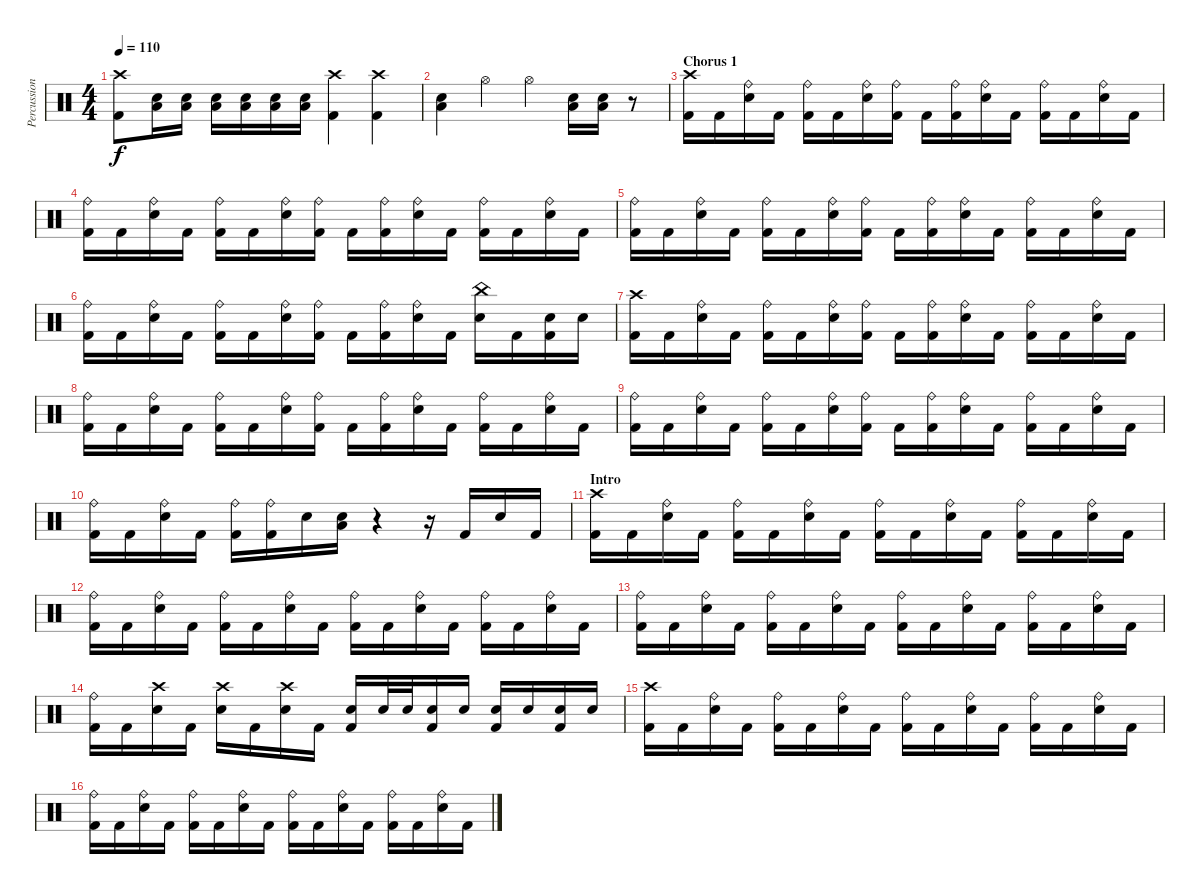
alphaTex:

\track ("Percussion" "Percussion") {instrument percussion}
\staff {score}
\articulation defaults
\ts (4 4)
\tempo 110
\clef neutral
\ks c
("Kick (hit) 2" "Crash high (hit)").8{dy f} ("Electric Snare (hit)" "Low Tom (hit)").16 ("Electric Snare (hit)" "Low Tom (hit)").16 ("Electric Snare (hit)" "Low Tom (hit)").16 ("Electric Snare (hit)" "Low Tom (hit)").16 ("Electric Snare (hit)" "Low Tom (hit)").16 ("Electric Snare (hit)" "Low Tom (hit)").16 ("Kick (hit) 2" "Crash high (hit)").4 ("Kick (hit) 2" "Crash high (hit)").4 |
("Electric Snare (hit)" "Low Tom (hit)").4 "Hi-Hat (open)".4 "Hi-Hat (open)".4 ("Electric Snare (hit)" "Low Tom (hit)").16 ("Electric Snare (hit)" "Low Tom (hit)").16 r.8 |
\section ("" "Chorus 1")
("Kick (hit) 2" "Crash high (hit)").16 "Kick (hit) 2".16 ("Electric Snare (hit)" "Ride (bell)").16 "Kick (hit) 2".16 ("Kick (hit) 2" "Ride (bell)").16 "Kick (hit) 2".16 ("Electric Snare (hit)" "Ride (bell)").16 ("Kick (hit) 2" "Ride (bell)").16 "Kick (hit) 2".16 ("Kick (hit) 2" "Ride (bell)").16 ("Electric Snare (hit)" "Ride (bell)").16 "Kick (hit) 2".16 ("Kick (hit) 2" "Ride (bell)").16 "Kick (hit) 2".16 ("Electric Snare (hit)" "Ride (bell)").16 "Kick (hit) 2".16 |
("Kick (hit) 2" "Ride (bell)").16 "Kick (hit) 2".16 ("Electric Snare (hit)" "Ride (bell)").16 "Kick (hit) 2".16 ("Kick (hit) 2" "Ride (bell)").16 "Kick (hit) 2".16 ("Electric Snare (hit)" "Ride (bell)").16 ("Kick (hit) 2" "Ride (bell)").16 "Kick (hit) 2".16 ("Kick (hit) 2" "Ride (bell)").16 ("Electric Snare (hit)" "Ride (bell)").16 "Kick (hit) 2".16 ("Kick (hit) 2" "Ride (bell)").16 "Kick (hit) 2".16 ("Electric Snare (hit)" "Ride (bell)").16 "Kick (hit) 2".16 |
("Kick (hit) 2" "Ride (bell)").16 "Kick (hit) 2".16 ("Electric Snare (hit)" "Ride (bell)").16 "Kick (hit) 2".16 ("Kick (hit) 2" "Ride (bell)").16 "Kick (hit) 2".16 ("Electric Snare (hit)" "Ride (bell)").16 ("Kick (hit) 2" "Ride (bell)").16 "Kick (hit) 2".16 ("Kick (hit) 2" "Ride (bell)").16 ("Electric Snare (hit)" "Ride (bell)").16 "Kick (hit) 2".16 ("Kick (hit) 2" "Ride (bell)").16 "Kick (hit) 2".16 ("Electric Snare (hit)" "Ride (bell)").16 "Kick (hit) 2".16 |
("Kick (hit) 2" "Ride (bell)").16 "Kick (hit) 2".16 ("Electric Snare (hit)" "Ride (bell)").16 "Kick (hit) 2".16 ("Kick (hit) 2" "Ride (bell)").16 "Kick (hit) 2".16 ("Electric Snare (hit)" "Ride (bell)").16 ("Kick (hit) 2" "Ride (bell)").16 "Kick (hit) 2".16 ("Kick (hit) 2" "Ride (bell)").16 ("Electric Snare (hit)" "Ride (bell)").16 "Kick (hit) 2".16 ("Electric Snare (hit)" "China (hit)").16 "Kick (hit) 2".16 ("Electric Snare (hit)" "Kick (hit) 2").16 "Electric Snare (hit)".16 |
("Kick (hit) 2" "Crash high (hit)").16 "Kick (hit) 2".16 ("Electric Snare (hit)" "Ride (bell)").16 "Kick (hit) 2".16 ("Kick (hit) 2" "Ride (bell)").16 "Kick (hit) 2".16 ("Electric Snare (hit)" "Ride (bell)").16 ("Kick (hit) 2" "Ride (bell)").16 "Kick (hit) 2".16 ("Kick (hit) 2" "Ride (bell)").16 ("Electric Snare (hit)" "Ride (bell)").16 "Kick (hit) 2".16 ("Kick (hit) 2" "Ride (bell)").16 "Kick (hit) 2".16 ("Electric Snare (hit)" "Ride (bell)").16 "Kick (hit) 2".16 |
("Kick (hit) 2" "Ride (bell)").16 "Kick (hit) 2".16 ("Electric Snare (hit)" "Ride (bell)").16 "Kick (hit) 2".16 ("Kick (hit) 2" "Ride (bell)").16 "Kick (hit) 2".16 ("Electric Snare (hit)" "Ride (bell)").16 ("Kick (hit) 2" "Ride (bell)").16 "Kick (hit) 2".16 ("Kick (hit) 2" "Ride (bell)").16 ("Electric Snare (hit)" "Ride (bell)").16 "Kick (hit) 2".16 ("Kick (hit) 2" "Ride (bell)").16 "Kick (hit) 2".16 ("Electric Snare (hit)" "Ride (bell)").16 "Kick (hit) 2".16 |
("Kick (hit) 2" "Ride (bell)").16 "Kick (hit) 2".16 ("Electric Snare (hit)" "Ride (bell)").16 "Kick (hit) 2".16 ("Kick (hit) 2" "Ride (bell)").16 "Kick (hit) 2".16 ("Electric Snare (hit)" "Ride (bell)").16 ("Kick (hit) 2" "Ride (bell)").16 "Kick (hit) 2".16 ("Kick (hit) 2" "Ride (bell)").16 ("Electric Snare (hit)" "Ride (bell)").16 "Kick (hit) 2".16 ("Kick (hit) 2" "Ride (bell)").16 "Kick (hit) 2".16 ("Electric Snare (hit)" "Ride (bell)").16 "Kick (hit) 2".16 |
("Kick (hit) 2" "Ride (bell)").16 "Kick (hit) 2".16 ("Electric Snare (hit)" "Ride (bell)").16 "Kick (hit) 2".16 ("Kick (hit) 2" "Ride (bell)").16 ("Kick (hit) 2" "Ride (bell)").16 "Electric Snare (hit)".16 ("Electric Snare (hit)" "Low Tom (hit)").16 r.4 r.16 "Kick (hit) 2".16 "Electric Snare (hit)".16 "Kick (hit) 2".16 |
\section ("" "Intro")
("Kick (hit) 2" "Crash high (hit)").16 "Kick (hit) 2".16 ("Electric Snare (hit)" "Ride (bell)").16 "Kick (hit) 2".16 ("Kick (hit) 2" "Ride (bell)").16 "Kick (hit) 2".16 ("Electric Snare (hit)" "Ride (bell)").16 "Kick (hit) 2".16 ("Kick (hit) 2" "Ride (bell)").16 "Kick (hit) 2".16 ("Electric Snare (hit)" "Ride (bell)").16 "Kick (hit) 2".16 ("Kick (hit) 2" "Ride (bell)").16 "Kick (hit) 2".16 ("Electric Snare (hit)" "Ride (bell)").16 "Kick (hit) 2".16 |
("Kick (hit) 2" "Ride (bell)").16 "Kick (hit) 2".16 ("Electric Snare (hit)" "Ride (bell)").16 "Kick (hit) 2".16 ("Kick (hit) 2" "Ride (bell)").16 "Kick (hit) 2".16 ("Electric Snare (hit)" "Ride (bell)").16 "Kick (hit) 2".16 ("Kick (hit) 2" "Ride (bell)").16 "Kick (hit) 2".16 ("Electric Snare (hit)" "Ride (bell)").16 "Kick (hit) 2".16 ("Kick (hit) 2" "Ride (bell)").16 "Kick (hit) 2".16 ("Electric Snare (hit)" "Ride (bell)").16 "Kick (hit) 2".16 |
("Kick (hit) 2" "Ride (bell)").16 "Kick (hit) 2".16 ("Electric Snare (hit)" "Ride (bell)").16 "Kick (hit) 2".16 ("Kick (hit) 2" "Ride (bell)").16 "Kick (hit) 2".16 ("Electric Snare (hit)" "Ride (bell)").16 "Kick (hit) 2".16 ("Kick (hit) 2" "Ride (bell)").16 "Kick (hit) 2".16 ("Electric Snare (hit)" "Ride (bell)").16 "Kick (hit) 2".16 ("Kick (hit) 2" "Ride (bell)").16 "Kick (hit) 2".16 ("Electric Snare (hit)" "Ride (bell)").16 "Kick (hit) 2".16 |
("Kick (hit) 2" "Ride (bell)").16 "Kick (hit) 2".16 ("Electric Snare (hit)" "Crash high (hit)").16 "Kick (hit) 2".16 ("Electric Snare (hit)" "Crash high (hit)").16 "Kick (hit) 2".16 ("Electric Snare (hit)" "Crash high (hit)").16 "Kick (hit) 2".16 ("Electric Snare (hit)" "Kick (hit) 2").16 "Electric Snare (hit)".32 "Electric Snare (hit)".32 ("Electric Snare (hit)" "Kick (hit) 2").16 "Electric Snare (hit)".16 ("Electric Snare (hit)" "Kick (hit) 2").16 "Electric Snare (hit)".16 ("Electric Snare (hit)" "Kick (hit) 2").16 "Electric Snare (hit)".16 |
("Kick (hit) 2" "Crash high (hit)").16 "Kick (hit) 2".16 ("Electric Snare (hit)" "Ride (bell)").16 "Kick (hit) 2".16 ("Kick (hit) 2" "Ride (bell)").16 "Kick (hit) 2".16 ("Electric Snare (hit)" "Ride (bell)").16 "Kick (hit) 2".16 ("Kick (hit) 2" "Ride (bell)").16 "Kick (hit) 2".16 ("Electric Snare (hit)" "Ride (bell)").16 "Kick (hit) 2".16 ("Kick (hit) 2" "Ride (bell)").16 "Kick (hit) 2".16 ("Electric Snare (hit)" "Ride (bell)").16 "Kick (hit) 2".16 |
("Kick (hit) 2" "Ride (bell)").16 "Kick (hit) 2".16 ("Electric Snare (hit)" "Ride (bell)").16 "Kick (hit) 2".16 ("Kick (hit) 2" "Ride (bell)").16 "Kick (hit) 2".16 ("Electric Snare (hit)" "Ride (bell)").16 "Kick (hit) 2".16 ("Kick (hit) 2" "Ride (bell)").16 "Kick (hit) 2".16 ("Electric Snare (hit)" "Ride (bell)").16 "Kick (hit) 2".16 ("Kick (hit) 2" "Ride (bell)").16 "Kick (hit) 2".16 ("Electric Snare (hit)" "Ride (bell)").16 "Kick (hit) 2".16
